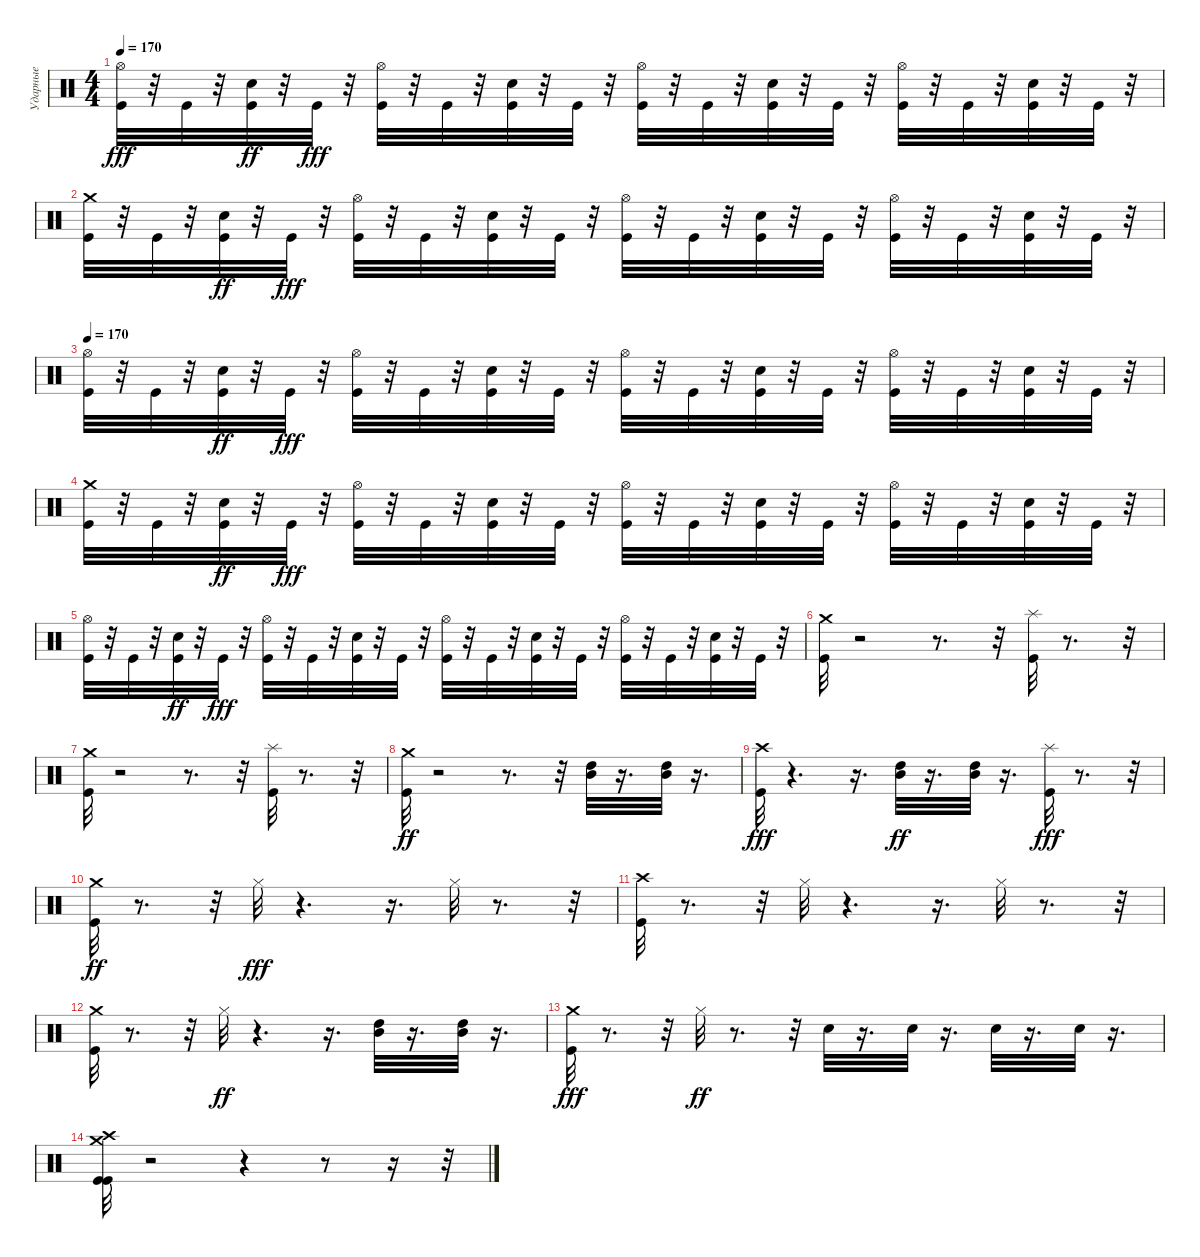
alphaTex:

\track ("Ударные" "Ударные") {instrument percussion}
\staff {score}
\articulation defaults
\ts (4 4)
\tempo 170
\clef neutral
\ks c
("Hi-Hat (open)" "Kick (hit)").32{dy fff} r.32 "Kick (hit)".32 r.32 ("Kick (hit)" "Snare (hit) 2").32{dy ff} r.32 "Kick (hit)".32{dy fff} r.32 ("Hi-Hat (open)" "Kick (hit)").32 r.32 "Kick (hit)".32 r.32 ("Snare (hit) 2" "Kick (hit)").32 r.32 "Kick (hit)".32 r.32 ("Hi-Hat (open)" "Kick (hit)").32 r.32 "Kick (hit)".32 r.32 ("Snare (hit) 2" "Kick (hit)").32 r.32 "Kick (hit)".32 r.32 ("Hi-Hat (open)" "Kick (hit)").32 r.32 "Kick (hit)".32 r.32 ("Snare (hit) 2" "Kick (hit)").32 r.32 "Kick (hit)".32 r.32 |
("Crash medium (hit)" "Kick (hit)").32 r.32 "Kick (hit)".32 r.32 ("Kick (hit)" "Snare (hit) 2").32{dy ff} r.32 "Kick (hit)".32{dy fff} r.32 ("Hi-Hat (open)" "Kick (hit)").32 r.32 "Kick (hit)".32 r.32 ("Snare (hit) 2" "Kick (hit)").32 r.32 "Kick (hit)".32 r.32 ("Hi-Hat (open)" "Kick (hit)").32 r.32 "Kick (hit)".32 r.32 ("Snare (hit) 2" "Kick (hit)").32 r.32 "Kick (hit)".32 r.32 ("Hi-Hat (open)" "Kick (hit)").32 r.32 "Kick (hit)".32 r.32 ("Snare (hit) 2" "Kick (hit)").32 r.32 "Kick (hit)".32 r.32 |
\tempo 170
("Hi-Hat (open)" "Kick (hit)").32 r.32 "Kick (hit)".32 r.32 ("Kick (hit)" "Snare (hit) 2").32{dy ff} r.32 "Kick (hit)".32{dy fff} r.32 ("Hi-Hat (open)" "Kick (hit)").32 r.32 "Kick (hit)".32 r.32 ("Snare (hit) 2" "Kick (hit)").32 r.32 "Kick (hit)".32 r.32 ("Hi-Hat (open)" "Kick (hit)").32 r.32 "Kick (hit)".32 r.32 ("Snare (hit) 2" "Kick (hit)").32 r.32 "Kick (hit)".32 r.32 ("Hi-Hat (open)" "Kick (hit)").32 r.32 "Kick (hit)".32 r.32 ("Snare (hit) 2" "Kick (hit)").32 r.32 "Kick (hit)".32 r.32 |
("Crash medium (hit)" "Kick (hit)").32 r.32 "Kick (hit)".32 r.32 ("Kick (hit)" "Snare (hit) 2").32{dy ff} r.32 "Kick (hit)".32{dy fff} r.32 ("Hi-Hat (open)" "Kick (hit)").32 r.32 "Kick (hit)".32 r.32 ("Snare (hit) 2" "Kick (hit)").32 r.32 "Kick (hit)".32 r.32 ("Hi-Hat (open)" "Kick (hit)").32 r.32 "Kick (hit)".32 r.32 ("Snare (hit) 2" "Kick (hit)").32 r.32 "Kick (hit)".32 r.32 ("Hi-Hat (open)" "Kick (hit)").32 r.32 "Kick (hit)".32 r.32 ("Snare (hit) 2" "Kick (hit)").32 r.32 "Kick (hit)".32 r.32 |
("Hi-Hat (open)" "Kick (hit)").32 r.32 "Kick (hit)".32 r.32 ("Kick (hit)" "Snare (hit) 2").32{dy ff} r.32 "Kick (hit)".32{dy fff} r.32 ("Hi-Hat (open)" "Kick (hit)").32 r.32 "Kick (hit)".32 r.32 ("Snare (hit) 2" "Kick (hit)").32 r.32 "Kick (hit)".32 r.32 ("Hi-Hat (open)" "Kick (hit)").32 r.32 "Kick (hit)".32 r.32 ("Snare (hit) 2" "Kick (hit)").32 r.32 "Kick (hit)".32 r.32 ("Hi-Hat (open)" "Kick (hit)").32 r.32 "Kick (hit)".32 r.32 ("Snare (hit) 2" "Kick (hit)").32 r.32 "Kick (hit)".32 r.32 |
("Crash medium (hit)" "Kick (hit)").32 r.2 r.8{d} r.32 ("Splash (hit)" "Kick (hit)").32 r.8{d} r.32 |
("Crash medium (hit)" "Kick (hit)").32 r.2 r.8{d} r.32 ("Splash (hit)" "Kick (hit)").32 r.8{d} r.32 |
("Kick (hit)" "Crash medium (hit)").32{dy ff} r.2 r.8{d} r.32 ("Mid Tom (hit)" "High Tom (hit)").32 r.16{d} ("High Tom (hit)" "Mid Tom (hit)").32 r.16{d} |
("Crash high (hit)" "Kick (hit)").32{dy fff} r.4{d} r.16{d} ("High Tom (hit)" "Mid Tom (hit)").32{dy ff} r.16{d} ("High Tom (hit)" "Mid Tom (hit)").32 r.16{d} ("Splash (hit)" "Kick (hit)").32{dy fff} r.8{d} r.32 |
("Kick (hit)" "Crash medium (hit)").32{dy ff} r.8{d} r.32 "Hi-Hat (closed)".32{dy fff} r.4{d} r.16{d} "Hi-Hat (closed)".32 r.8{d} r.32 |
("Crash high (hit)" "Kick (hit)").32 r.8{d} r.32 "Hi-Hat (closed)".32 r.4{d} r.16{d} "Hi-Hat (closed)".32 r.8{d} r.32 |
("Crash medium (hit)" "Kick (hit)").32 r.8{d} r.32 "Hi-Hat (closed)".32{dy ff} r.4{d} r.16{d} ("High Tom (hit)" "Mid Tom (hit)").32 r.16{d} ("High Tom (hit)" "Mid Tom (hit)").32 r.16{d} |
("Crash medium (hit)" "Kick (hit)").32{dy fff} r.8{d} r.32 "Hi-Hat (closed)".32{dy ff} r.8{d} r.32 "Snare (hit) 2".32 r.16{d} "Snare (hit) 2".32 r.16{d} "Snare (hit) 2".32 r.16{d} "Snare (hit) 2".32 r.16{d} |
("Crash high (hit)" "Kick (hit)" "Crash medium (hit)" "Kick (hit)").32 r.2 r.4 r.8 r.16 r.32
